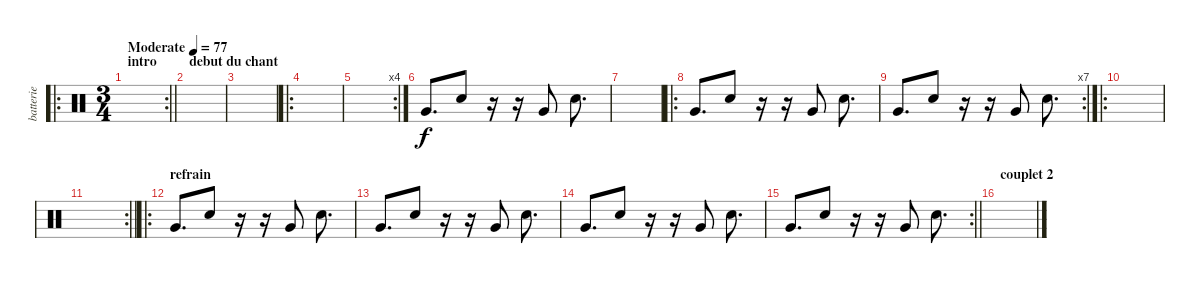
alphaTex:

\track ("batterie" "batterie") {instrument percussion}
\staff {score}
\articulation defaults
\ro
\rc 2
\ts (3 4)
\section ("" "intro")
\tempo (77 "Moderate")
\clef neutral
\barLineRight lightlight
\ks c
|
\section ("" "debut du chant")
|
|
\ro
|
\rc 4
|
"Very Low Tom (hit)".8{d} "Snare (hit) 2".8 r.16 r.16 "Very Low Tom (hit)".8 "Snare (hit) 2".8{d} |
|
\ro "Very Low Tom (hit)".8{d} "Snare (hit) 2".8
r.16 r.16 "Very Low Tom (hit)".8 "Snare (hit) 2".8{d} |
\rc 7 "Very Low Tom (hit)".8{d} "Snare (hit) 2".8
r.16 r.16 "Very Low Tom (hit)".8 "Snare (hit) 2".8{d} |
\ro
|
\rc 2
\barLineRight lightlight
|
\ro
\section ("" "refrain")
"Very Low Tom (hit)".8{d} "Snare (hit) 2".8 r.16 r.16 "Very Low Tom (hit)".8 "Snare (hit) 2".8{d} |
"Very Low Tom (hit)".8{d} "Snare (hit) 2".8 r.16 r.16 "Very Low Tom (hit)".8 "Snare (hit) 2".8{d} |
"Very Low Tom (hit)".8{d} "Snare (hit) 2".8 r.16 r.16 "Very Low Tom (hit)".8 "Snare (hit) 2".8{d} |
\rc 2
\barLineRight lightlight "Very Low Tom (hit)".8{d} "Snare (hit) 2".8
r.16 r.16 "Very Low Tom (hit)".8 "Snare (hit) 2".8{d} |
\section ("" "couplet 2")
